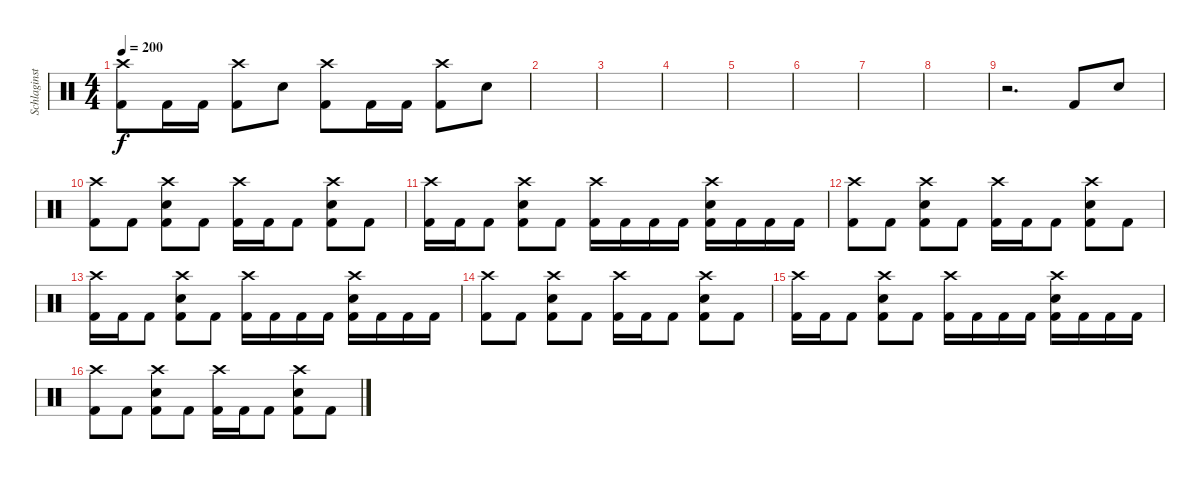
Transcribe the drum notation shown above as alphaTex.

\track ("Schlaginstrumente - Auswahl" "Schlaginst") {instrument percussion}
\staff {score}
\articulation defaults
\ts (4 4)
\tempo 200
\clef neutral
\ks c
("Crash high (hit)" "Kick (hit) 2").8{dy f} "Kick (hit) 2".16 "Kick (hit) 2".16 ("Crash high (hit)" "Kick (hit) 2").8 "Snare (hit) 2".8 ("Crash high (hit)" "Kick (hit) 2").8 "Kick (hit) 2".16 "Kick (hit) 2".16 ("Crash high (hit)" "Kick (hit) 2").8 "Snare (hit) 2".8 |
|
|
|
|
|
|
|
r.2{d} "Kick (hit) 2".8 "Snare (hit) 2".8 |
("Crash high (hit)" "Kick (hit) 2").8 "Kick (hit) 2".8 ("Crash high (hit)" "Snare (hit) 2" "Kick (hit) 2").8 "Kick (hit) 2".8 ("Crash high (hit)" "Kick (hit) 2").16 "Kick (hit) 2".16 "Kick (hit) 2".8 ("Crash high (hit)" "Snare (hit) 2" "Kick (hit) 2").8 "Kick (hit) 2".8 |
("Crash high (hit)" "Kick (hit) 2").16 "Kick (hit) 2".16 "Kick (hit) 2".8 ("Crash high (hit)" "Snare (hit) 2" "Kick (hit) 2").8 "Kick (hit) 2".8 ("Crash high (hit)" "Kick (hit) 2").16 "Kick (hit) 2".16 "Kick (hit) 2".16 "Kick (hit) 2".16 ("Crash high (hit)" "Snare (hit) 2" "Kick (hit) 2").16 "Kick (hit) 2".16 "Kick (hit) 2".16 "Kick (hit) 2".16 |
("Crash high (hit)" "Kick (hit) 2").8 "Kick (hit) 2".8 ("Crash high (hit)" "Snare (hit) 2" "Kick (hit) 2").8 "Kick (hit) 2".8 ("Crash high (hit)" "Kick (hit) 2").16 "Kick (hit) 2".16 "Kick (hit) 2".8 ("Crash high (hit)" "Snare (hit) 2" "Kick (hit) 2").8 "Kick (hit) 2".8 |
("Crash high (hit)" "Kick (hit) 2").16 "Kick (hit) 2".16 "Kick (hit) 2".8 ("Crash high (hit)" "Snare (hit) 2" "Kick (hit) 2").8 "Kick (hit) 2".8 ("Crash high (hit)" "Kick (hit) 2").16 "Kick (hit) 2".16 "Kick (hit) 2".16 "Kick (hit) 2".16 ("Crash high (hit)" "Snare (hit) 2" "Kick (hit) 2").16 "Kick (hit) 2".16 "Kick (hit) 2".16 "Kick (hit) 2".16 |
("Crash high (hit)" "Kick (hit) 2").8 "Kick (hit) 2".8 ("Crash high (hit)" "Snare (hit) 2" "Kick (hit) 2").8 "Kick (hit) 2".8 ("Crash high (hit)" "Kick (hit) 2").16 "Kick (hit) 2".16 "Kick (hit) 2".8 ("Crash high (hit)" "Snare (hit) 2" "Kick (hit) 2").8 "Kick (hit) 2".8 |
("Crash high (hit)" "Kick (hit) 2").16 "Kick (hit) 2".16 "Kick (hit) 2".8 ("Crash high (hit)" "Snare (hit) 2" "Kick (hit) 2").8 "Kick (hit) 2".8 ("Crash high (hit)" "Kick (hit) 2").16 "Kick (hit) 2".16 "Kick (hit) 2".16 "Kick (hit) 2".16 ("Crash high (hit)" "Snare (hit) 2" "Kick (hit) 2").16 "Kick (hit) 2".16 "Kick (hit) 2".16 "Kick (hit) 2".16 |
("Crash high (hit)" "Kick (hit) 2").8 "Kick (hit) 2".8 ("Crash high (hit)" "Snare (hit) 2" "Kick (hit) 2").8 "Kick (hit) 2".8 ("Crash high (hit)" "Kick (hit) 2").16 "Kick (hit) 2".16 "Kick (hit) 2".8 ("Crash high (hit)" "Snare (hit) 2" "Kick (hit) 2").8 "Kick (hit) 2".8
